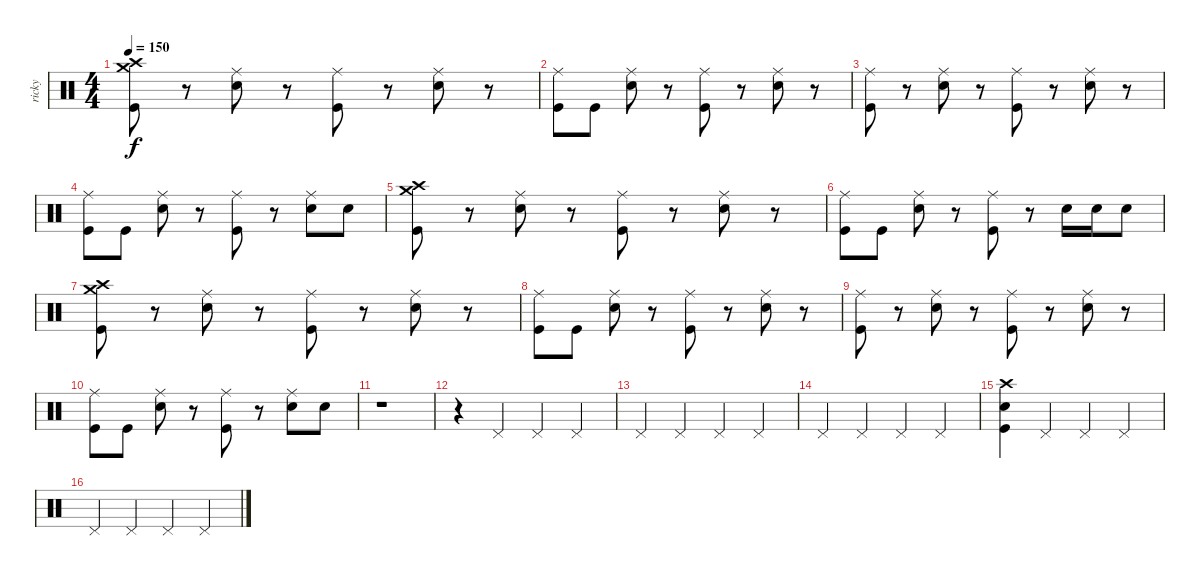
\track ("ricky" "ricky") {instrument percussion}
\staff {score}
\articulation defaults
\ts (4 4)
\tempo 150
\clef neutral
\ks c
("Crash medium (hit)" "Crash high (hit)" "Kick (hit)").8{dy f} r.8 ("Ride (middle)" "Electric Snare (hit)").8 r.8 ("Ride (middle)" "Kick (hit)").8 r.8 ("Ride (middle)" "Electric Snare (hit)").8 r.8 |
("Ride (middle)" "Kick (hit)").8 "Kick (hit)".8 ("Ride (middle)" "Electric Snare (hit)").8 r.8 ("Ride (middle)" "Kick (hit)").8 r.8 ("Ride (middle)" "Electric Snare (hit)").8 r.8 |
("Ride (middle)" "Kick (hit)").8 r.8 ("Ride (middle)" "Electric Snare (hit)").8 r.8 ("Ride (middle)" "Kick (hit)").8 r.8 ("Ride (middle)" "Electric Snare (hit)").8 r.8 |
("Ride (middle)" "Kick (hit)").8 "Kick (hit)".8 ("Ride (middle)" "Electric Snare (hit)").8 r.8 ("Ride (middle)" "Kick (hit)").8 r.8 ("Ride (middle)" "Electric Snare (hit)").8 "Electric Snare (hit)".8 |
("Crash medium (hit)" "Crash high (hit)" "Kick (hit)").8 r.8 ("Ride (middle)" "Electric Snare (hit)").8 r.8 ("Ride (middle)" "Kick (hit)").8 r.8 ("Ride (middle)" "Electric Snare (hit)").8 r.8 |
("Ride (middle)" "Kick (hit)").8 "Kick (hit)".8 ("Ride (middle)" "Electric Snare (hit)").8 r.8 ("Ride (middle)" "Kick (hit)").8 r.8 "Electric Snare (hit)".16 "Electric Snare (hit)".16 "Electric Snare (hit)".8 |
("Crash medium (hit)" "Crash high (hit)" "Kick (hit)").8 r.8 ("Ride (middle)" "Electric Snare (hit)").8 r.8 ("Ride (middle)" "Kick (hit)").8 r.8 ("Ride (middle)" "Electric Snare (hit)").8 r.8 |
("Ride (middle)" "Kick (hit)").8 "Kick (hit)".8 ("Ride (middle)" "Electric Snare (hit)").8 r.8 ("Ride (middle)" "Kick (hit)").8 r.8 ("Ride (middle)" "Electric Snare (hit)").8 r.8 |
("Ride (middle)" "Kick (hit)").8 r.8 ("Ride (middle)" "Electric Snare (hit)").8 r.8 ("Ride (middle)" "Kick (hit)").8 r.8 ("Ride (middle)" "Electric Snare (hit)").8 r.8 |
("Ride (middle)" "Kick (hit)").8 "Kick (hit)".8 ("Ride (middle)" "Electric Snare (hit)").8 r.8 ("Ride (middle)" "Kick (hit)").8 r.8 ("Ride (middle)" "Electric Snare (hit)").8 "Electric Snare (hit)".8 |
r.1 |
r.4 "Pedal Hi-Hat (hit)".4 "Pedal Hi-Hat (hit)".4 "Pedal Hi-Hat (hit)".4 |
"Pedal Hi-Hat (hit)".4 "Pedal Hi-Hat (hit)".4 "Pedal Hi-Hat (hit)".4 "Pedal Hi-Hat (hit)".4 |
"Pedal Hi-Hat (hit)".4 "Pedal Hi-Hat (hit)".4 "Pedal Hi-Hat (hit)".4 "Pedal Hi-Hat (hit)".4 |
("Crash high (hit)" "Electric Snare (hit)" "Kick (hit)").4 "Pedal Hi-Hat (hit)".4 "Pedal Hi-Hat (hit)".4 "Pedal Hi-Hat (hit)".4 |
"Pedal Hi-Hat (hit)".4 "Pedal Hi-Hat (hit)".4 "Pedal Hi-Hat (hit)".4 "Pedal Hi-Hat (hit)".4
